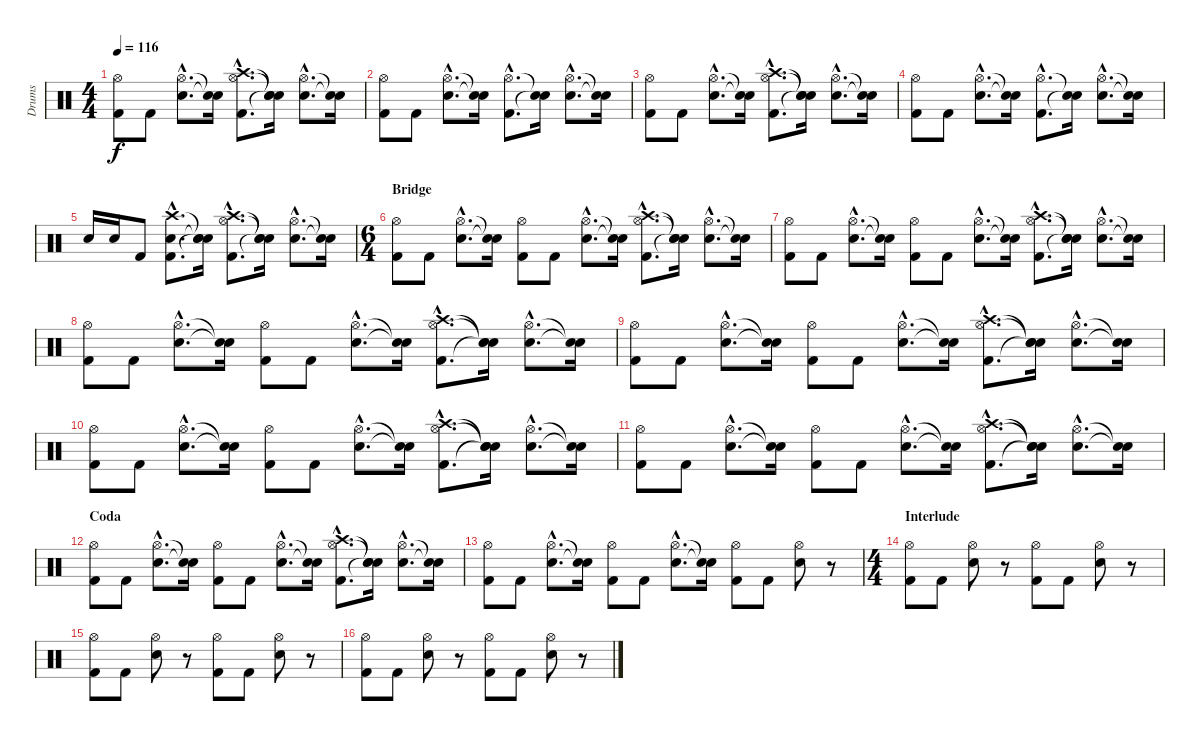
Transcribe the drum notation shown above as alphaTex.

\track ("Drums" "Drums") {instrument percussion}
\staff {score}
\articulation defaults
\ts (4 4)
\tempo 116
\clef neutral
\ks c
("Kick (hit) 2" "Hi-Hat (open)").8{dy f} "Kick (hit) 2".8 ("Snare (hit) 2"{hac} "Hi-Hat (open)"{hac}).8{d} ("Snare (hit)"{t} "Snare (hit)"{t}).16 ("Kick (hit) 2"{hac} "Hi-Hat (open)"{hac} "Crash high (hit)"{hac}).8{d} ("Snare (hit)"{t} "Snare (hit)"{t} "Snare (hit)"{t}).16 ("Snare (hit) 2"{hac} "Hi-Hat (open)"{hac}).8{d} ("Snare (hit)"{t} "Snare (hit)"{t}).16 |
("Kick (hit) 2" "Hi-Hat (open)").8 "Kick (hit) 2".8 ("Snare (hit) 2"{hac} "Hi-Hat (open)"{hac}).8{d} ("Snare (hit)"{t} "Snare (hit)"{t}).16 ("Kick (hit) 2"{hac} "Hi-Hat (open)"{hac}).8{d} ("Snare (hit)"{t} "Snare (hit)"{t}).16 ("Snare (hit) 2"{hac} "Hi-Hat (open)"{hac}).8{d} ("Snare (hit)"{t} "Snare (hit)"{t}).16 |
("Kick (hit) 2" "Hi-Hat (open)").8 "Kick (hit) 2".8 ("Snare (hit) 2"{hac} "Hi-Hat (open)"{hac}).8{d} ("Snare (hit)"{t} "Snare (hit)"{t}).16 ("Kick (hit) 2"{hac} "Hi-Hat (open)"{hac} "Crash high (hit)"{hac}).8{d} ("Snare (hit)"{t} "Snare (hit)"{t} "Snare (hit)"{t}).16 ("Snare (hit) 2"{hac} "Hi-Hat (open)"{hac}).8{d} ("Snare (hit)"{t} "Snare (hit)"{t}).16 |
("Kick (hit) 2" "Hi-Hat (open)").8 "Kick (hit) 2".8 ("Snare (hit) 2"{hac} "Hi-Hat (open)"{hac}).8{d} ("Snare (hit)"{t} "Snare (hit)"{t}).16 ("Kick (hit) 2"{hac} "Hi-Hat (open)"{hac}).8{d} ("Snare (hit)"{t} "Snare (hit)"{t}).16 ("Snare (hit) 2"{hac} "Hi-Hat (open)"{hac}).8{d} ("Snare (hit)"{t} "Snare (hit)"{t}).16 |
"Snare (hit) 2".16 "Snare (hit) 2".16 "Kick (hit) 2".8 ("Kick (hit) 2"{hac} "Snare (hit) 2"{hac} "Crash high (hit)"{hac}).8{d} ("Snare (hit)"{t} "Snare (hit)"{t} "Snare (hit)"{t}).16 ("Kick (hit) 2"{hac} "Hi-Hat (open)"{hac} "Crash high (hit)"{hac}).8{d} ("Snare (hit)"{t} "Snare (hit)"{t} "Snare (hit)"{t}).16 ("Snare (hit) 2"{hac} "Hi-Hat (open)"{hac}).8{d} ("Snare (hit)"{t} "Snare (hit)"{t}).16 |
\ts (6 4)
\section ("" "Bridge")
("Kick (hit) 2" "Hi-Hat (open)").8 "Kick (hit) 2".8 ("Snare (hit) 2"{hac} "Hi-Hat (open)"{hac}).8{d} ("Snare (hit)"{t} "Snare (hit)"{t}).16 ("Kick (hit) 2" "Hi-Hat (open)").8 "Kick (hit) 2".8 ("Snare (hit) 2"{hac} "Hi-Hat (open)"{hac}).8{d} ("Snare (hit)"{t} "Snare (hit)"{t}).16 ("Kick (hit) 2"{hac} "Hi-Hat (open)"{hac} "Crash high (hit)"{hac}).8{d} ("Snare (hit)"{t} "Snare (hit)"{t} "Snare (hit)"{t}).16 ("Snare (hit) 2"{hac} "Hi-Hat (open)"{hac}).8{d} ("Snare (hit)"{t} "Snare (hit)"{t}).16 |
("Kick (hit) 2" "Hi-Hat (open)").8 "Kick (hit) 2".8 ("Snare (hit) 2"{hac} "Hi-Hat (open)"{hac}).8{d} ("Snare (hit)"{t} "Snare (hit)"{t}).16 ("Kick (hit) 2" "Hi-Hat (open)").8 "Kick (hit) 2".8 ("Snare (hit) 2"{hac} "Hi-Hat (open)"{hac}).8{d} ("Snare (hit)"{t} "Snare (hit)"{t}).16 ("Kick (hit) 2"{hac} "Hi-Hat (open)"{hac} "Crash high (hit)"{hac}).8{d} ("Snare (hit)"{t} "Snare (hit)"{t} "Snare (hit)"{t}).16 ("Snare (hit) 2"{hac} "Hi-Hat (open)"{hac}).8{d} ("Snare (hit)"{t} "Snare (hit)"{t}).16 |
("Kick (hit) 2" "Hi-Hat (open)").8 "Kick (hit) 2".8 ("Snare (hit) 2"{hac} "Hi-Hat (open)"{hac}).8{d} ("Snare (hit)"{t} "Snare (hit)"{t}).16 ("Kick (hit) 2" "Hi-Hat (open)").8 "Kick (hit) 2".8 ("Snare (hit) 2"{hac} "Hi-Hat (open)"{hac}).8{d} ("Snare (hit)"{t} "Snare (hit)"{t}).16 ("Kick (hit) 2"{hac} "Hi-Hat (open)"{hac} "Crash high (hit)"{hac}).8{d} ("Snare (hit)"{t} "Snare (hit)"{t} "Snare (hit)"{t}).16 ("Snare (hit) 2"{hac} "Hi-Hat (open)"{hac}).8{d} ("Snare (hit)"{t} "Snare (hit)"{t}).16 |
("Kick (hit) 2" "Hi-Hat (open)").8 "Kick (hit) 2".8 ("Snare (hit) 2"{hac} "Hi-Hat (open)"{hac}).8{d} ("Snare (hit)"{t} "Snare (hit)"{t}).16 ("Kick (hit) 2" "Hi-Hat (open)").8 "Kick (hit) 2".8 ("Snare (hit) 2"{hac} "Hi-Hat (open)"{hac}).8{d} ("Snare (hit)"{t} "Snare (hit)"{t}).16 ("Kick (hit) 2"{hac} "Hi-Hat (open)"{hac} "Crash high (hit)"{hac}).8{d} ("Snare (hit)"{t} "Snare (hit)"{t} "Snare (hit)"{t}).16 ("Snare (hit) 2"{hac} "Hi-Hat (open)"{hac}).8{d} ("Snare (hit)"{t} "Snare (hit)"{t}).16 |
("Kick (hit) 2" "Hi-Hat (open)").8 "Kick (hit) 2".8 ("Snare (hit) 2"{hac} "Hi-Hat (open)"{hac}).8{d} ("Snare (hit)"{t} "Snare (hit)"{t}).16 ("Kick (hit) 2" "Hi-Hat (open)").8 "Kick (hit) 2".8 ("Snare (hit) 2"{hac} "Hi-Hat (open)"{hac}).8{d} ("Snare (hit)"{t} "Snare (hit)"{t}).16 ("Kick (hit) 2"{hac} "Hi-Hat (open)"{hac} "Crash high (hit)"{hac}).8{d} ("Snare (hit)"{t} "Snare (hit)"{t} "Snare (hit)"{t}).16 ("Snare (hit) 2"{hac} "Hi-Hat (open)"{hac}).8{d} ("Snare (hit)"{t} "Snare (hit)"{t}).16 |
("Kick (hit) 2" "Hi-Hat (open)").8 "Kick (hit) 2".8 ("Snare (hit) 2"{hac} "Hi-Hat (open)"{hac}).8{d} ("Snare (hit)"{t} "Snare (hit)"{t}).16 ("Kick (hit) 2" "Hi-Hat (open)").8 "Kick (hit) 2".8 ("Snare (hit) 2"{hac} "Hi-Hat (open)"{hac}).8{d} ("Snare (hit)"{t} "Snare (hit)"{t}).16 ("Kick (hit) 2"{hac} "Hi-Hat (open)"{hac} "Crash high (hit)"{hac}).8{d} ("Snare (hit)"{t} "Snare (hit)"{t} "Snare (hit)"{t}).16 ("Snare (hit) 2"{hac} "Hi-Hat (open)"{hac}).8{d} ("Snare (hit)"{t} "Snare (hit)"{t}).16 |
\section ("" "Coda")
("Kick (hit) 2" "Hi-Hat (open)").8 "Kick (hit) 2".8 ("Snare (hit) 2"{hac} "Hi-Hat (open)"{hac}).8{d} ("Snare (hit)"{t} "Snare (hit)"{t}).16 ("Kick (hit) 2" "Hi-Hat (open)").8 "Kick (hit) 2".8 ("Snare (hit) 2"{hac} "Hi-Hat (open)"{hac}).8{d} ("Snare (hit)"{t} "Snare (hit)"{t}).16 ("Kick (hit) 2"{hac} "Hi-Hat (open)"{hac} "Crash high (hit)"{hac}).8{d} ("Snare (hit)"{t} "Snare (hit)"{t} "Snare (hit)"{t}).16 ("Snare (hit) 2"{hac} "Hi-Hat (open)"{hac}).8{d} ("Snare (hit)"{t} "Snare (hit)"{t}).16 |
("Kick (hit) 2" "Hi-Hat (open)").8 "Kick (hit) 2".8 ("Snare (hit) 2"{hac} "Hi-Hat (open)"{hac}).8{d} ("Snare (hit)"{t} "Snare (hit)"{t}).16 ("Kick (hit) 2" "Hi-Hat (open)").8 "Kick (hit) 2".8 ("Snare (hit) 2"{hac} "Hi-Hat (open)"{hac}).8{d} ("Snare (hit)"{t} "Snare (hit)"{t}).16 ("Kick (hit) 2" "Hi-Hat (open)").8 "Kick (hit) 2".8 ("Snare (hit) 2" "Hi-Hat (open)").8 r.8 |
\ts (4 4)
\section ("" "Interlude")
("Kick (hit) 2" "Hi-Hat (open)").8 "Kick (hit) 2".8 ("Snare (hit) 2" "Hi-Hat (open)").8 r.8 ("Kick (hit) 2" "Hi-Hat (open)").8 "Kick (hit) 2".8 ("Snare (hit) 2" "Hi-Hat (open)").8 r.8 |
("Kick (hit) 2" "Hi-Hat (open)").8 "Kick (hit) 2".8 ("Snare (hit) 2" "Hi-Hat (open)").8 r.8 ("Kick (hit) 2" "Hi-Hat (open)").8 "Kick (hit) 2".8 ("Snare (hit) 2" "Hi-Hat (open)").8 r.8 |
("Kick (hit) 2" "Hi-Hat (open)").8 "Kick (hit) 2".8 ("Snare (hit) 2" "Hi-Hat (open)").8 r.8 ("Kick (hit) 2" "Hi-Hat (open)").8 "Kick (hit) 2".8 ("Snare (hit) 2" "Hi-Hat (open)").8 r.8
